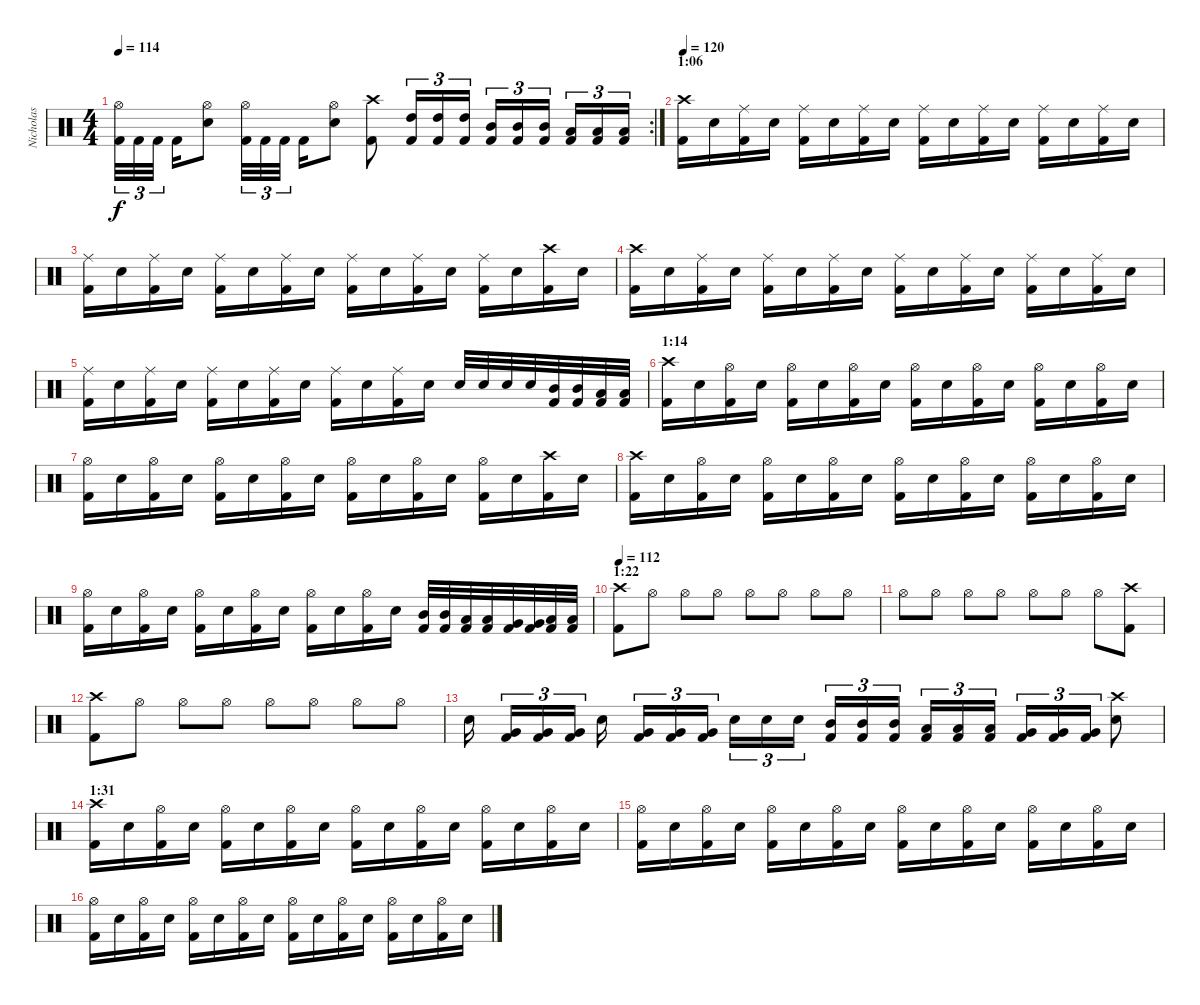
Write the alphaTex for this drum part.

\track ("Nicholas" "Nicholas") {instrument percussion}
\staff {score}
\articulation defaults
\rc 2
\ts (4 4)
\tempo 114
\clef neutral
\ks c
("Kick (hit) 2" "Hi-Hat (open)").32{tu (3 2) dy f} "Kick (hit) 2".32{tu (3 2)} "Kick (hit) 2".32{tu (3 2)} "Kick (hit) 2".16 ("Snare (hit) 2" "Hi-Hat (open)").8 ("Kick (hit) 2" "Hi-Hat (open)").32{tu (3 2)} "Kick (hit) 2".32{tu (3 2)} "Kick (hit) 2".32{tu (3 2)} "Kick (hit) 2".16 ("Snare (hit) 2" "Hi-Hat (open)").8 ("Kick (hit) 2" "Crash high (hit)").8 ("Kick (hit) 2" "High Tom (hit)").16{tu (3 2)} ("Kick (hit) 2" "High Tom (hit)").16{tu (3 2)} ("Kick (hit) 2" "High Tom (hit)").16{tu (3 2)} ("Kick (hit) 2" "Mid Tom (hit)").16{tu (3 2)} ("Kick (hit) 2" "Mid Tom (hit)").16{tu (3 2)} ("Kick (hit) 2" "Mid Tom (hit)").16{tu (3 2)} ("Kick (hit) 2" "Low Tom (hit)").16{tu (3 2)} ("Kick (hit) 2" "Low Tom (hit)").16{tu (3 2)} ("Kick (hit) 2" "Low Tom (hit)").16{tu (3 2)} |
\section ("" "1:06")
\tempo 120
("Kick (hit) 2" "Crash high (hit)").16 "Snare (hit) 2".16 ("Kick (hit) 2" "Ride (middle)").16 "Snare (hit) 2".16 ("Kick (hit) 2" "Ride (middle)").16 "Snare (hit) 2".16 ("Kick (hit) 2" "Ride (middle)").16 "Snare (hit) 2".16 ("Kick (hit) 2" "Ride (middle)").16 "Snare (hit) 2".16 ("Kick (hit) 2" "Ride (middle)").16 "Snare (hit) 2".16 ("Kick (hit) 2" "Ride (middle)").16 "Snare (hit) 2".16 ("Kick (hit) 2" "Ride (middle)").16 "Snare (hit) 2".16 |
("Kick (hit) 2" "Ride (middle)").16 "Snare (hit) 2".16 ("Kick (hit) 2" "Ride (middle)").16 "Snare (hit) 2".16 ("Kick (hit) 2" "Ride (middle)").16 "Snare (hit) 2".16 ("Kick (hit) 2" "Ride (middle)").16 "Snare (hit) 2".16 ("Kick (hit) 2" "Ride (middle)").16 "Snare (hit) 2".16 ("Kick (hit) 2" "Ride (middle)").16 "Snare (hit) 2".16 ("Kick (hit) 2" "Ride (middle)").16 "Snare (hit) 2".16 ("Kick (hit) 2" "Crash high (hit)").16 "Snare (hit) 2".16 |
("Kick (hit) 2" "Crash high (hit)").16 "Snare (hit) 2".16 ("Kick (hit) 2" "Ride (middle)").16 "Snare (hit) 2".16 ("Kick (hit) 2" "Ride (middle)").16 "Snare (hit) 2".16 ("Kick (hit) 2" "Ride (middle)").16 "Snare (hit) 2".16 ("Kick (hit) 2" "Ride (middle)").16 "Snare (hit) 2".16 ("Kick (hit) 2" "Ride (middle)").16 "Snare (hit) 2".16 ("Kick (hit) 2" "Ride (middle)").16 "Snare (hit) 2".16 ("Kick (hit) 2" "Ride (middle)").16 "Snare (hit) 2".16 |
("Kick (hit) 2" "Ride (middle)").16 "Snare (hit) 2".16 ("Kick (hit) 2" "Ride (middle)").16 "Snare (hit) 2".16 ("Kick (hit) 2" "Ride (middle)").16 "Snare (hit) 2".16 ("Kick (hit) 2" "Ride (middle)").16 "Snare (hit) 2".16 ("Kick (hit) 2" "Ride (middle)").16 "Snare (hit) 2".16 ("Kick (hit) 2" "Ride (middle)").16 "Snare (hit) 2".16 "Snare (hit) 2".32 "Snare (hit) 2".32 "Snare (hit) 2".32 "Snare (hit) 2".32 ("Kick (hit) 2" "Mid Tom (hit)").32 ("Kick (hit) 2" "Mid Tom (hit)").32 ("Kick (hit) 2" "Low Tom (hit)").32 ("Kick (hit) 2" "Low Tom (hit)").32 |
\section ("" "1:14")
("Kick (hit) 2" "Crash high (hit)").16 "Snare (hit) 2".16 ("Kick (hit) 2" "Hi-Hat (open)").16 "Snare (hit) 2".16 ("Kick (hit) 2" "Hi-Hat (open)").16 "Snare (hit) 2".16 ("Kick (hit) 2" "Hi-Hat (open)").16 "Snare (hit) 2".16 ("Kick (hit) 2" "Hi-Hat (open)").16 "Snare (hit) 2".16 ("Kick (hit) 2" "Hi-Hat (open)").16 "Snare (hit) 2".16 ("Kick (hit) 2" "Hi-Hat (open)").16 "Snare (hit) 2".16 ("Kick (hit) 2" "Hi-Hat (open)").16 "Snare (hit) 2".16 |
("Kick (hit) 2" "Hi-Hat (open)").16 "Snare (hit) 2".16 ("Kick (hit) 2" "Hi-Hat (open)").16 "Snare (hit) 2".16 ("Kick (hit) 2" "Hi-Hat (open)").16 "Snare (hit) 2".16 ("Kick (hit) 2" "Hi-Hat (open)").16 "Snare (hit) 2".16 ("Kick (hit) 2" "Hi-Hat (open)").16 "Snare (hit) 2".16 ("Kick (hit) 2" "Hi-Hat (open)").16 "Snare (hit) 2".16 ("Kick (hit) 2" "Hi-Hat (open)").16 "Snare (hit) 2".16 ("Kick (hit) 2" "Crash high (hit)").16 "Snare (hit) 2".16 |
("Kick (hit) 2" "Crash high (hit)").16 "Snare (hit) 2".16 ("Kick (hit) 2" "Hi-Hat (open)").16 "Snare (hit) 2".16 ("Kick (hit) 2" "Hi-Hat (open)").16 "Snare (hit) 2".16 ("Kick (hit) 2" "Hi-Hat (open)").16 "Snare (hit) 2".16 ("Kick (hit) 2" "Hi-Hat (open)").16 "Snare (hit) 2".16 ("Kick (hit) 2" "Hi-Hat (open)").16 "Snare (hit) 2".16 ("Kick (hit) 2" "Hi-Hat (open)").16 "Snare (hit) 2".16 ("Kick (hit) 2" "Hi-Hat (open)").16 "Snare (hit) 2".16 |
("Kick (hit) 2" "Hi-Hat (open)").16 "Snare (hit) 2".16 ("Kick (hit) 2" "Hi-Hat (open)").16 "Snare (hit) 2".16 ("Kick (hit) 2" "Hi-Hat (open)").16 "Snare (hit) 2".16 ("Kick (hit) 2" "Hi-Hat (open)").16 "Snare (hit) 2".16 ("Kick (hit) 2" "Hi-Hat (open)").16 "Snare (hit) 2".16 ("Kick (hit) 2" "Hi-Hat (open)").16 "Snare (hit) 2".16 ("Kick (hit) 2" "Mid Tom (hit)").32 ("Kick (hit) 2" "Mid Tom (hit)").32 ("Kick (hit) 2" "Low Tom (hit)").32 ("Kick (hit) 2" "Low Tom (hit)").32 ("Kick (hit) 2" "Very Low Tom (hit)").32 ("Kick (hit) 2" "Very Low Tom (hit)").32 ("Kick (hit) 2" "Low Floor Tom (hit)").32 ("Kick (hit) 2" "Low Floor Tom (hit)").32 |
\section ("" "1:22")
\tempo 112
("Kick (hit) 2" "Crash high (hit)").8 "Hi-Hat (open)".8 "Hi-Hat (open)".8 "Hi-Hat (open)".8 "Hi-Hat (open)".8 "Hi-Hat (open)".8 "Hi-Hat (open)".8 "Hi-Hat (open)".8 |
"Hi-Hat (open)".8 "Hi-Hat (open)".8 "Hi-Hat (open)".8 "Hi-Hat (open)".8 "Hi-Hat (open)".8 "Hi-Hat (open)".8 "Hi-Hat (open)".8 ("Kick (hit) 2" "Crash high (hit)").8 |
("Kick (hit) 2" "Crash high (hit)").8 "Hi-Hat (open)".8 "Hi-Hat (open)".8 "Hi-Hat (open)".8 "Hi-Hat (open)".8 "Hi-Hat (open)".8 "Hi-Hat (open)".8 "Hi-Hat (open)".8 |
"Snare (hit) 2".16 ("Kick (hit) 2" "Very Low Tom (hit)").16{tu (3 2)} ("Kick (hit) 2" "Very Low Tom (hit)").16{tu (3 2)} ("Kick (hit) 2" "Very Low Tom (hit)").16{tu (3 2)} "Snare (hit) 2".16 ("Kick (hit) 2" "Very Low Tom (hit)").16{tu (3 2)} ("Kick (hit) 2" "Very Low Tom (hit)").16{tu (3 2)} ("Kick (hit) 2" "Very Low Tom (hit)").16{tu (3 2)} "Snare (hit) 2".16{tu (3 2)} "Snare (hit) 2".16{tu (3 2)} "Snare (hit) 2".16{tu (3 2)} ("Kick (hit) 2" "Mid Tom (hit)").16{tu (3 2)} ("Kick (hit) 2" "Mid Tom (hit)").16{tu (3 2)} ("Kick (hit) 2" "Mid Tom (hit)").16{tu (3 2)} ("Kick (hit) 2" "Low Tom (hit)").16{tu (3 2)} ("Kick (hit) 2" "Low Tom (hit)").16{tu (3 2)} ("Kick (hit) 2" "Low Tom (hit)").16{tu (3 2)} ("Kick (hit) 2" "Very Low Tom (hit)").16{tu (3 2)} ("Kick (hit) 2" "Very Low Tom (hit)").16{tu (3 2)} ("Kick (hit) 2" "Very Low Tom (hit)").16{tu (3 2)} ("Snare (hit) 2" "Crash high (hit)").8 |
\section ("" "1:31")
("Kick (hit) 2" "Crash high (hit)").16 "Snare (hit) 2".16 ("Kick (hit) 2" "Hi-Hat (open)").16 "Snare (hit) 2".16 ("Kick (hit) 2" "Hi-Hat (open)").16 "Snare (hit) 2".16 ("Kick (hit) 2" "Hi-Hat (open)").16 "Snare (hit) 2".16 ("Kick (hit) 2" "Hi-Hat (open)").16 "Snare (hit) 2".16 ("Kick (hit) 2" "Hi-Hat (open)").16 "Snare (hit) 2".16 ("Kick (hit) 2" "Hi-Hat (open)").16 "Snare (hit) 2".16 ("Kick (hit) 2" "Hi-Hat (open)").16 "Snare (hit) 2".16 |
("Kick (hit) 2" "Hi-Hat (open)").16 "Snare (hit) 2".16 ("Kick (hit) 2" "Hi-Hat (open)").16 "Snare (hit) 2".16 ("Kick (hit) 2" "Hi-Hat (open)").16 "Snare (hit) 2".16 ("Kick (hit) 2" "Hi-Hat (open)").16 "Snare (hit) 2".16 ("Kick (hit) 2" "Hi-Hat (open)").16 "Snare (hit) 2".16 ("Kick (hit) 2" "Hi-Hat (open)").16 "Snare (hit) 2".16 ("Kick (hit) 2" "Hi-Hat (open)").16 "Snare (hit) 2".16 ("Kick (hit) 2" "Hi-Hat (open)").16 "Snare (hit) 2".16 |
("Kick (hit) 2" "Hi-Hat (open)").16 "Snare (hit) 2".16 ("Kick (hit) 2" "Hi-Hat (open)").16 "Snare (hit) 2".16 ("Kick (hit) 2" "Hi-Hat (open)").16 "Snare (hit) 2".16 ("Kick (hit) 2" "Hi-Hat (open)").16 "Snare (hit) 2".16 ("Kick (hit) 2" "Hi-Hat (open)").16 "Snare (hit) 2".16 ("Kick (hit) 2" "Hi-Hat (open)").16 "Snare (hit) 2".16 ("Kick (hit) 2" "Hi-Hat (open)").16 "Snare (hit) 2".16 ("Kick (hit) 2" "Hi-Hat (open)").16 "Snare (hit) 2".16
